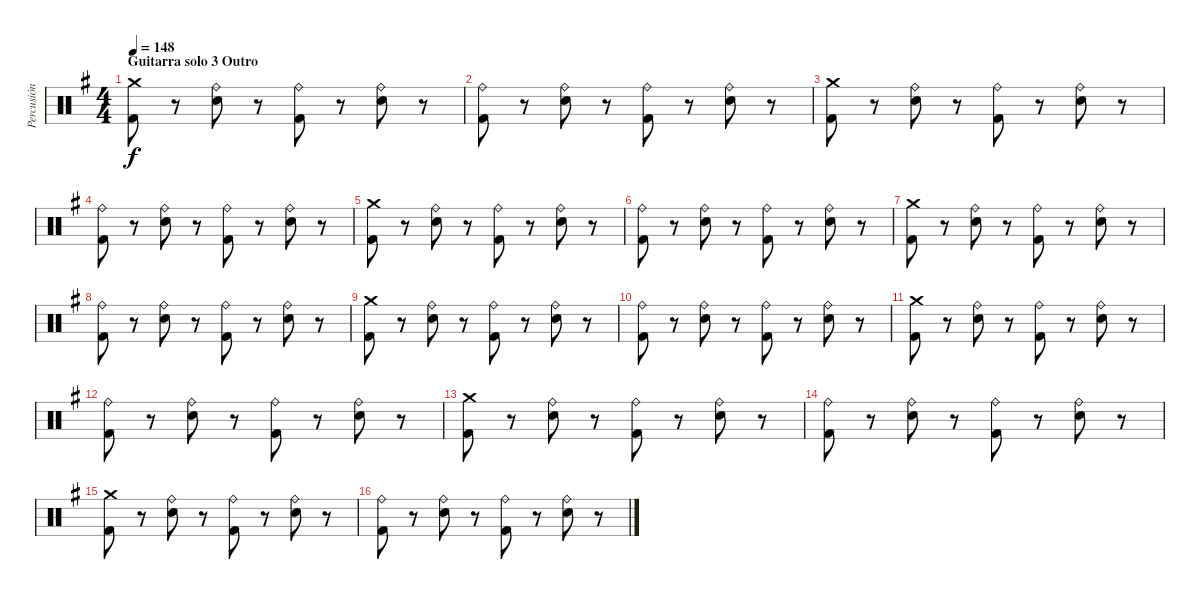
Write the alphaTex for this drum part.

\track ("Percusión" "Percusión") {instrument percussion}
\staff {score}
\articulation defaults
\ts (4 4)
\section ("" "Guitarra solo 3 Outro")
\tempo 148
\clef neutral
\ks g
("Crash medium (hit)" "Kick (hit) 2").8{dy f} r.8 ("Ride (bell)" "Snare (hit) 2").8 r.8 ("Ride (bell)" "Kick (hit) 2").8 r.8 ("Ride (bell)" "Snare (hit) 2").8 r.8 |
("Ride (bell)" "Kick (hit) 2").8 r.8 ("Ride (bell)" "Snare (hit) 2").8 r.8 ("Ride (bell)" "Kick (hit) 2").8 r.8 ("Ride (bell)" "Snare (hit) 2").8 r.8 |
("Crash medium (hit)" "Kick (hit) 2").8 r.8 ("Ride (bell)" "Snare (hit) 2").8 r.8 ("Ride (bell)" "Kick (hit) 2").8 r.8 ("Ride (bell)" "Snare (hit) 2").8 r.8 |
("Ride (bell)" "Kick (hit) 2").8 r.8 ("Ride (bell)" "Snare (hit) 2").8 r.8 ("Ride (bell)" "Kick (hit) 2").8 r.8 ("Ride (bell)" "Snare (hit) 2").8 r.8 |
("Crash medium (hit)" "Kick (hit) 2").8 r.8 ("Ride (bell)" "Snare (hit) 2").8 r.8 ("Ride (bell)" "Kick (hit) 2").8 r.8 ("Ride (bell)" "Snare (hit) 2").8 r.8 |
("Ride (bell)" "Kick (hit) 2").8 r.8 ("Ride (bell)" "Snare (hit) 2").8 r.8 ("Ride (bell)" "Kick (hit) 2").8 r.8 ("Ride (bell)" "Snare (hit) 2").8 r.8 |
("Crash medium (hit)" "Kick (hit) 2").8 r.8 ("Ride (bell)" "Snare (hit) 2").8 r.8 ("Ride (bell)" "Kick (hit) 2").8 r.8 ("Ride (bell)" "Snare (hit) 2").8 r.8 |
("Ride (bell)" "Kick (hit) 2").8 r.8 ("Ride (bell)" "Snare (hit) 2").8 r.8 ("Ride (bell)" "Kick (hit) 2").8 r.8 ("Ride (bell)" "Snare (hit) 2").8 r.8 |
("Crash medium (hit)" "Kick (hit) 2").8 r.8 ("Ride (bell)" "Snare (hit) 2").8 r.8 ("Ride (bell)" "Kick (hit) 2").8 r.8 ("Ride (bell)" "Snare (hit) 2").8 r.8 |
("Ride (bell)" "Kick (hit) 2").8 r.8 ("Ride (bell)" "Snare (hit) 2").8 r.8 ("Ride (bell)" "Kick (hit) 2").8 r.8 ("Ride (bell)" "Snare (hit) 2").8 r.8 |
("Crash medium (hit)" "Kick (hit) 2").8 r.8 ("Ride (bell)" "Snare (hit) 2").8 r.8 ("Ride (bell)" "Kick (hit) 2").8 r.8 ("Ride (bell)" "Snare (hit) 2").8 r.8 |
("Ride (bell)" "Kick (hit) 2").8 r.8 ("Ride (bell)" "Snare (hit) 2").8 r.8 ("Ride (bell)" "Kick (hit) 2").8 r.8 ("Ride (bell)" "Snare (hit) 2").8 r.8 |
("Crash medium (hit)" "Kick (hit) 2").8 r.8 ("Ride (bell)" "Snare (hit) 2").8 r.8 ("Ride (bell)" "Kick (hit) 2").8 r.8 ("Ride (bell)" "Snare (hit) 2").8 r.8 |
("Ride (bell)" "Kick (hit) 2").8 r.8 ("Ride (bell)" "Snare (hit) 2").8 r.8 ("Ride (bell)" "Kick (hit) 2").8 r.8 ("Ride (bell)" "Snare (hit) 2").8 r.8 |
("Crash medium (hit)" "Kick (hit) 2").8 r.8 ("Ride (bell)" "Snare (hit) 2").8 r.8 ("Ride (bell)" "Kick (hit) 2").8 r.8 ("Ride (bell)" "Snare (hit) 2").8 r.8 |
("Ride (bell)" "Kick (hit) 2").8 r.8 ("Ride (bell)" "Snare (hit) 2").8 r.8 ("Ride (bell)" "Kick (hit) 2").8 r.8 ("Ride (bell)" "Snare (hit) 2").8 r.8
